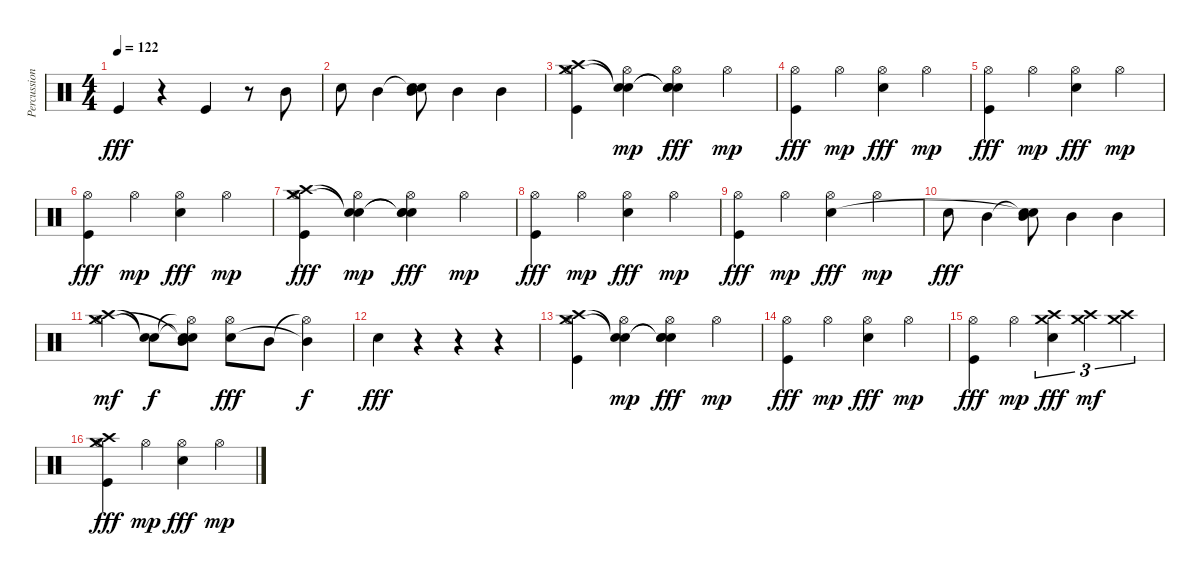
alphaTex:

\track ("Percussion" "Percussion") {instrument percussion}
\staff {score}
\articulation defaults
\ts (4 4)
\tempo 122
\clef neutral
\ks c "Kick (hit)".4{dy fff}
r.4 "Kick (hit)".4 r.8 "Mid Tom (hit)".8 |
"Snare (hit) 2".8 "Mid Tom (hit)".4 ("Snare (hit)"{t} "Snare (hit)"{t} "Mid Tom (hit)").8 "Mid Tom (hit)".4 "Mid Tom (hit)".4 |
("Hi-Hat (open)" "Crash high (hit)" "Crash medium (hit)" "Kick (hit)").4 ("Hi-Hat (open)" "Snare (hit)"{t} "Snare (hit)"{t}).4{dy mp} ("Hi-Hat (open)" "Snare (hit)"{t} "Snare (hit)"{t} "Snare (hit) 2").4{dy fff} "Hi-Hat (open)".4{dy mp} |
("Hi-Hat (open)" "Kick (hit)").4{dy fff} "Hi-Hat (open)".4{dy mp} ("Hi-Hat (open)" "Snare (hit) 2").4{dy fff} "Hi-Hat (open)".4{dy mp} |
("Hi-Hat (open)" "Kick (hit)").4{dy fff} "Hi-Hat (open)".4{dy mp} ("Hi-Hat (open)" "Snare (hit) 2").4{dy fff} "Hi-Hat (open)".4{dy mp} |
("Hi-Hat (open)" "Kick (hit)").4{dy fff} "Hi-Hat (open)".4{dy mp} ("Hi-Hat (open)" "Snare (hit) 2").4{dy fff} "Hi-Hat (open)".4{dy mp} |
("Hi-Hat (open)" "Crash high (hit)" "Crash medium (hit)" "Kick (hit)").4{dy fff} ("Hi-Hat (open)" "Snare (hit)"{t} "Snare (hit)"{t}).4{dy mp} ("Hi-Hat (open)" "Snare (hit)"{t} "Snare (hit)"{t} "Snare (hit) 2").4{dy fff} "Hi-Hat (open)".4{dy mp} |
("Hi-Hat (open)" "Kick (hit)").4{dy fff} "Hi-Hat (open)".4{dy mp} ("Hi-Hat (open)" "Snare (hit) 2").4{dy fff} "Hi-Hat (open)".4{dy mp} |
("Hi-Hat (open)" "Kick (hit)").4{dy fff} "Hi-Hat (open)".4{dy mp} ("Hi-Hat (open)" "Snare (hit) 2").4{dy fff} "Hi-Hat (open)".4{dy mp} |
"Snare (hit) 2".8{dy fff} "Mid Tom (hit)".4 ("Snare (hit)"{t} "Snare (hit)"{t} "Mid Tom (hit)").8 "Mid Tom (hit)".4 "Mid Tom (hit)".4 |
("Hi-Hat (open)" "Crash high (hit)" "Crash medium (hit)").4{dy mf} ("Snare (hit)"{t} "Snare (hit)"{t}).8{dy f} ("Hi-Hat (open)"{t} "Snare (hit)"{t} "Snare (hit)"{t} "Mid Tom (hit)").8 ("Hi-Hat (open)" "Snare (hit) 2").8{dy fff} "Mid Tom (hit)".8 ("Hi-Hat (open)"{t} "Mid Tom (hit)"{t}).4{dy f} |
"Snare (hit) 2".4{dy fff} r.4 r.4 r.4 |
("Hi-Hat (open)" "Crash high (hit)" "Crash medium (hit)" "Kick (hit)").4 ("Hi-Hat (open)" "Snare (hit)"{t} "Snare (hit)"{t}).4{dy mp} ("Hi-Hat (open)" "Snare (hit)"{t} "Snare (hit)"{t} "Snare (hit) 2").4{dy fff} "Hi-Hat (open)".4{dy mp} |
("Hi-Hat (open)" "Kick (hit)").4{dy fff} "Hi-Hat (open)".4{dy mp} ("Hi-Hat (open)" "Snare (hit) 2").4{dy fff} "Hi-Hat (open)".4{dy mp} |
("Hi-Hat (open)" "Kick (hit)").4{dy fff} "Hi-Hat (open)".4{dy mp} ("Crash high (hit)" "Crash medium (hit)" "Snare (hit) 2").4{tu (3 2) dy fff} ("Crash high (hit)" "Crash medium (hit)").4{tu (3 2) dy mf} ("Crash high (hit)" "Crash medium (hit)").4{tu (3 2)} |
("Hi-Hat (open)" "Crash high (hit)" "Crash medium (hit)" "Kick (hit)").4{dy fff} "Hi-Hat (open)".4{dy mp} ("Hi-Hat (open)" "Snare (hit) 2").4{dy fff} "Hi-Hat (open)".4{dy mp}
